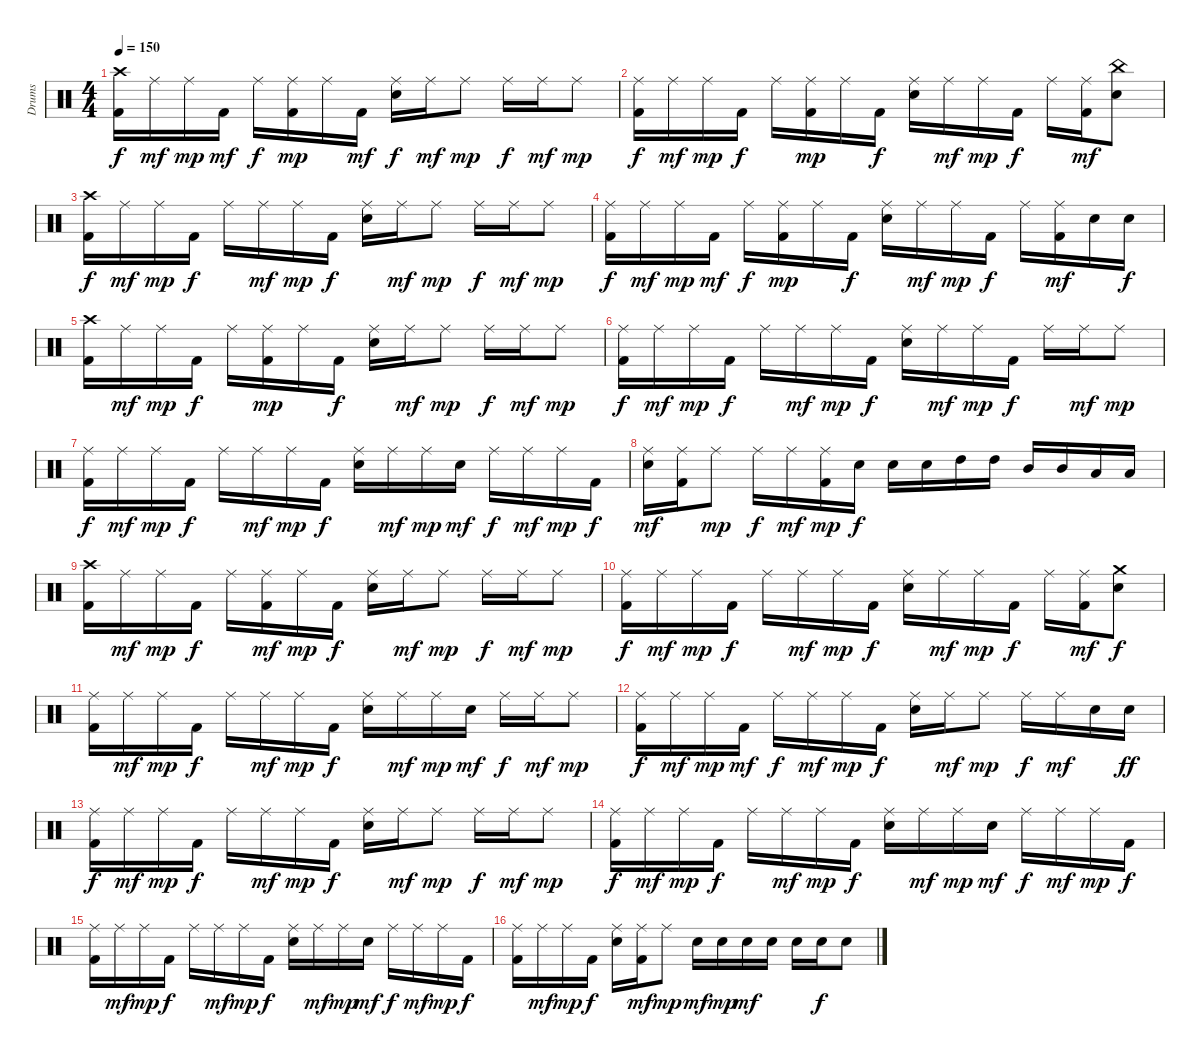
\track ("Drums" "Drums") {instrument percussion}
\staff {score}
\articulation defaults
\ts (4 4)
\tempo 150
\clef neutral
\ks c
("Crash high (hit)" "Kick (hit) 2").16{dy f} "Ride (middle)".16{dy mf} "Ride (middle)".16{dy mp} "Kick (hit) 2".16{dy mf} "Ride (middle)".16{dy f} ("Ride (middle)" "Kick (hit) 2").16{dy mp} "Ride (middle)".16 "Kick (hit) 2".16{dy mf} ("Ride (middle)" "Snare (hit) 2").16{dy f} "Ride (middle)".16{dy mf} "Ride (middle)".8{dy mp} "Ride (middle)".16{dy f} "Ride (middle)".16{dy mf} "Ride (middle)".8{dy mp} |
("Ride (middle)" "Kick (hit) 2").16{dy f} "Ride (middle)".16{dy mf} "Ride (middle)".16{dy mp} "Kick (hit) 2".16{dy f} "Ride (middle)".16 ("Ride (middle)" "Kick (hit) 2").16{dy mp} "Ride (middle)".16 "Kick (hit) 2".16{dy f} ("Ride (middle)" "Snare (hit) 2").16 "Ride (middle)".16{dy mf} "Ride (middle)".16{dy mp} "Kick (hit) 2".16{dy f} "Ride (middle)".16 ("Ride (middle)" "Kick (hit) 2").16{dy mf} ("China (hit)" "Snare (hit) 2").8 |
("Crash high (hit)" "Kick (hit) 2").16{dy f} "Ride (middle)".16{dy mf} "Ride (middle)".16{dy mp} "Kick (hit) 2".16{dy f} "Ride (middle)".16 "Ride (middle)".16{dy mf} "Ride (middle)".16{dy mp} "Kick (hit) 2".16{dy f} ("Ride (middle)" "Snare (hit) 2").16 "Ride (middle)".16{dy mf} "Ride (middle)".8{dy mp} "Ride (middle)".16{dy f} "Ride (middle)".16{dy mf} "Ride (middle)".8{dy mp} |
("Ride (middle)" "Kick (hit) 2").16{dy f} "Ride (middle)".16{dy mf} "Ride (middle)".16{dy mp} "Kick (hit) 2".16{dy mf} "Ride (middle)".16{dy f} ("Ride (middle)" "Kick (hit) 2").16{dy mp} "Ride (middle)".16 "Kick (hit) 2".16{dy f} ("Ride (middle)" "Snare (hit) 2").16 "Ride (middle)".16{dy mf} "Ride (middle)".16{dy mp} "Kick (hit) 2".16{dy f} "Ride (middle)".16 ("Ride (middle)" "Kick (hit) 2").16{dy mf} "Snare (hit) 2".16 "Snare (hit) 2".16{dy f} |
("Crash high (hit)" "Kick (hit) 2").16 "Ride (middle)".16{dy mf} "Ride (middle)".16{dy mp} "Kick (hit) 2".16{dy f} "Ride (middle)".16 ("Ride (middle)" "Kick (hit) 2").16{dy mp} "Ride (middle)".16 "Kick (hit) 2".16{dy f} ("Ride (middle)" "Snare (hit) 2").16 "Ride (middle)".16{dy mf} "Ride (middle)".8{dy mp} "Ride (middle)".16{dy f} "Ride (middle)".16{dy mf} "Ride (middle)".8{dy mp} |
("Ride (middle)" "Kick (hit) 2").16{dy f} "Ride (middle)".16{dy mf} "Ride (middle)".16{dy mp} "Kick (hit) 2".16{dy f} "Ride (middle)".16 "Ride (middle)".16{dy mf} "Ride (middle)".16{dy mp} "Kick (hit) 2".16{dy f} ("Ride (middle)" "Snare (hit) 2").16 "Ride (middle)".16{dy mf} "Ride (middle)".16{dy mp} "Kick (hit) 2".16{dy f} "Ride (middle)".16 "Ride (middle)".16{dy mf} "Ride (middle)".8{dy mp} |
("Ride (middle)" "Kick (hit) 2").16{dy f} "Ride (middle)".16{dy mf} "Ride (middle)".16{dy mp} "Kick (hit) 2".16{dy f} "Ride (middle)".16 "Ride (middle)".16{dy mf} "Ride (middle)".16{dy mp} "Kick (hit) 2".16{dy f} ("Ride (middle)" "Snare (hit) 2").16 "Ride (middle)".16{dy mf} "Ride (middle)".16{dy mp} "Snare (hit) 2".16{dy mf} "Ride (middle)".16{dy f} "Ride (middle)".16{dy mf} "Ride (middle)".16{dy mp} "Kick (hit) 2".16{dy f} |
("Ride (middle)" "Snare (hit) 2").16{dy mf} ("Ride (middle)" "Kick (hit) 2").16 "Ride (middle)".8{dy mp} "Ride (middle)".16{dy f} "Ride (middle)".16{dy mf} ("Ride (middle)" "Kick (hit) 2").16{dy mp} "Snare (hit) 2".16{dy f} "Snare (hit) 2".16 "Snare (hit) 2".16 "High Tom (hit)".16 "High Tom (hit)".16 "Mid Tom (hit)".16 "Mid Tom (hit)".16 "Low Tom (hit)".16 "Low Tom (hit)".16 |
("Crash high (hit)" "Kick (hit) 2").16 "Ride (middle)".16{dy mf} "Ride (middle)".16{dy mp} "Kick (hit) 2".16{dy f} "Ride (middle)".16 ("Ride (middle)" "Kick (hit) 2").16{dy mf} "Ride (middle)".16{dy mp} "Kick (hit) 2".16{dy f} ("Ride (middle)" "Snare (hit) 2").16 "Ride (middle)".16{dy mf} "Ride (middle)".8{dy mp} "Ride (middle)".16{dy f} "Ride (middle)".16{dy mf} "Ride (middle)".8{dy mp} |
("Ride (middle)" "Kick (hit) 2").16{dy f} "Ride (middle)".16{dy mf} "Ride (middle)".16{dy mp} "Kick (hit) 2".16{dy f} "Ride (middle)".16 "Ride (middle)".16{dy mf} "Ride (middle)".16{dy mp} "Kick (hit) 2".16{dy f} ("Ride (middle)" "Snare (hit) 2").16 "Ride (middle)".16{dy mf} "Ride (middle)".16{dy mp} "Kick (hit) 2".16{dy f} "Ride (middle)".16 ("Ride (middle)" "Kick (hit) 2").16{dy mf} ("Crash medium (hit)" "Snare (hit) 2").8{dy f} |
("Ride (middle)" "Kick (hit) 2").16 "Ride (middle)".16{dy mf} "Ride (middle)".16{dy mp} "Kick (hit) 2".16{dy f} "Ride (middle)".16 "Ride (middle)".16{dy mf} "Ride (middle)".16{dy mp} "Kick (hit) 2".16{dy f} ("Ride (middle)" "Snare (hit) 2").16 "Ride (middle)".16{dy mf} "Ride (middle)".16{dy mp} "Snare (hit) 2".16{dy mf} "Ride (middle)".16{dy f} "Ride (middle)".16{dy mf} "Ride (middle)".8{dy mp} |
("Ride (middle)" "Kick (hit) 2").16{dy f} "Ride (middle)".16{dy mf} "Ride (middle)".16{dy mp} "Kick (hit) 2".16{dy mf} "Ride (middle)".16{dy f} "Ride (middle)".16{dy mf} "Ride (middle)".16{dy mp} "Kick (hit) 2".16{dy f} ("Ride (middle)" "Snare (hit) 2").16 "Ride (middle)".16{dy mf} "Ride (middle)".8{dy mp} "Ride (middle)".16{dy f} "Ride (middle)".16{dy mf} "Snare (hit) 2".16 "Snare (hit) 2".16{dy ff} |
("Ride (middle)" "Kick (hit) 2").16{dy f} "Ride (middle)".16{dy mf} "Ride (middle)".16{dy mp} "Kick (hit) 2".16{dy f} "Ride (middle)".16 "Ride (middle)".16{dy mf} "Ride (middle)".16{dy mp} "Kick (hit) 2".16{dy f} ("Ride (middle)" "Snare (hit) 2").16 "Ride (middle)".16{dy mf} "Ride (middle)".8{dy mp} "Ride (middle)".16{dy f} "Ride (middle)".16{dy mf} "Ride (middle)".8{dy mp} |
("Ride (middle)" "Kick (hit) 2").16{dy f} "Ride (middle)".16{dy mf} "Ride (middle)".16{dy mp} "Kick (hit) 2".16{dy f} "Ride (middle)".16 "Ride (middle)".16{dy mf} "Ride (middle)".16{dy mp} "Kick (hit) 2".16{dy f} ("Ride (middle)" "Snare (hit) 2").16 "Ride (middle)".16{dy mf} "Ride (middle)".16{dy mp} "Snare (hit) 2".16{dy mf} "Ride (middle)".16{dy f} "Ride (middle)".16{dy mf} "Ride (middle)".16{dy mp} "Kick (hit) 2".16{dy f} |
("Ride (middle)" "Kick (hit) 2").16 "Ride (middle)".16{dy mf} "Ride (middle)".16{dy mp} "Kick (hit) 2".16{dy f} "Ride (middle)".16 "Ride (middle)".16{dy mf} "Ride (middle)".16{dy mp} "Kick (hit) 2".16{dy f} ("Ride (middle)" "Snare (hit) 2").16 "Ride (middle)".16{dy mf} "Ride (middle)".16{dy mp} "Snare (hit) 2".16{dy mf} "Ride (middle)".16{dy f} "Ride (middle)".16{dy mf} "Ride (middle)".16{dy mp} "Kick (hit) 2".16{dy f} |
("Ride (middle)" "Kick (hit) 2").16 "Ride (middle)".16{dy mf} "Ride (middle)".16{dy mp} "Kick (hit) 2".16{dy f} ("Ride (middle)" "Snare (hit) 2").16 ("Ride (middle)" "Kick (hit) 2").16{dy mf} "Ride (middle)".8{dy mp} "Snare (hit) 2".16{dy mf} "Snare (hit) 2".16{dy mp} "Snare (hit) 2".16{dy mf} "Snare (hit) 2".16 "Snare (hit) 2".16 "Snare (hit) 2".16{dy f} "Snare (hit) 2".8
